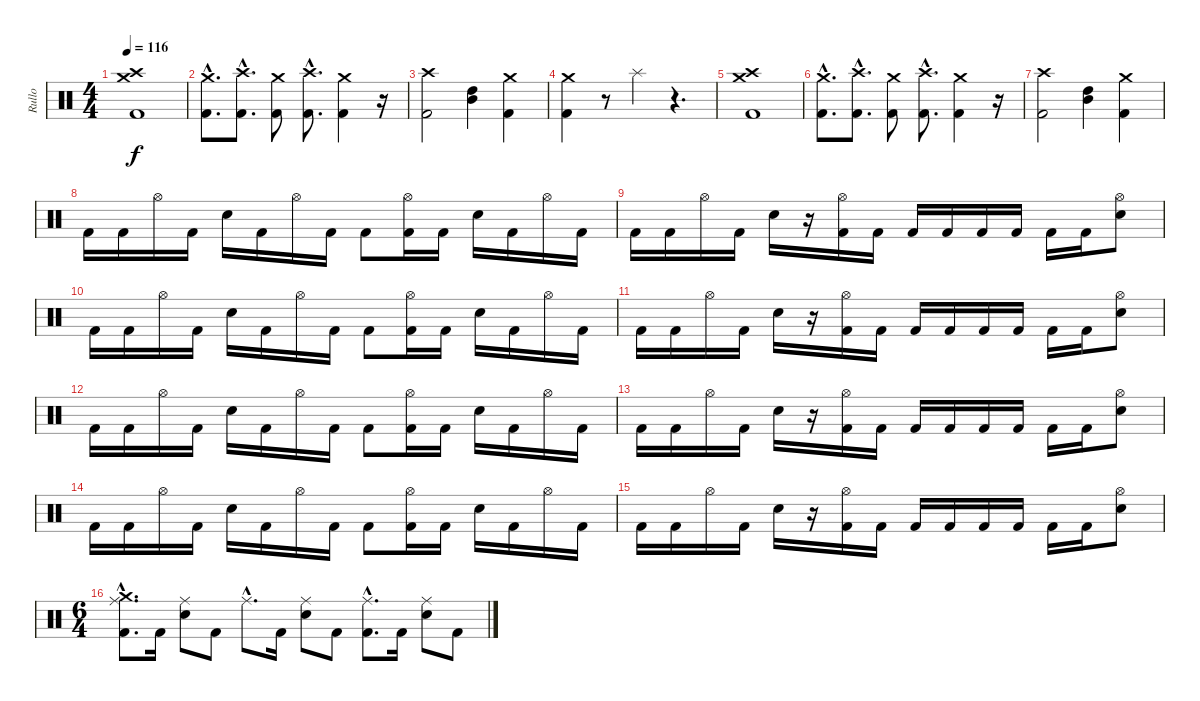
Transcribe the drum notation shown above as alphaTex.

\track ("Rullo" "Rullo") {instrument percussion}
\staff {score}
\articulation defaults
\ts (4 4)
\tempo 116
\clef neutral
\ks c
("Crash high (hit)" "Crash medium (hit)" "Kick (hit) 2").1{dy f} |
("Crash medium (hit)"{hac} "Kick (hit) 2"{hac}).8{d} ("Crash high (hit)"{hac} "Kick (hit) 2"{hac}).8{d} ("Crash medium (hit)" "Kick (hit) 2").8 ("Crash high (hit)"{hac} "Kick (hit) 2"{hac}).8{d} ("Crash medium (hit)" "Kick (hit) 2").4 r.16 |
("Crash high (hit)" "Kick (hit) 2").2 ("Mid Tom (hit)" "High Tom (hit)").4 ("Crash medium (hit)" "Kick (hit) 2").4 |
("Crash medium (hit)" "Kick (hit) 2").4 r.8 "Splash (hit)".4 r.4{d} |
("Crash high (hit)" "Crash medium (hit)" "Kick (hit) 2").1 |
("Crash medium (hit)"{hac} "Kick (hit) 2"{hac}).8{d} ("Crash high (hit)"{hac} "Kick (hit) 2"{hac}).8{d} ("Crash medium (hit)" "Kick (hit) 2").8 ("Crash high (hit)"{hac} "Kick (hit) 2"{hac}).8{d} ("Crash medium (hit)" "Kick (hit) 2").4 r.16 |
("Crash high (hit)" "Kick (hit) 2").2 ("Mid Tom (hit)" "High Tom (hit)").4 ("Crash medium (hit)" "Kick (hit) 2").4 |
"Kick (hit) 2".16 "Kick (hit) 2".16 "Hi-Hat (open)".16 "Kick (hit) 2".16 "Electric Snare (hit)".16 "Kick (hit) 2".16 "Hi-Hat (open)".16 "Kick (hit) 2".16 "Kick (hit) 2".8 ("Hi-Hat (open)" "Kick (hit) 2").16 "Kick (hit) 2".16 "Electric Snare (hit)".16 "Kick (hit) 2".16 "Hi-Hat (open)".16 "Kick (hit) 2".16 |
"Kick (hit) 2".16 "Kick (hit) 2".16 "Hi-Hat (open)".16 "Kick (hit) 2".16 "Electric Snare (hit)".16 r.16 ("Hi-Hat (open)" "Kick (hit) 2").16 "Kick (hit) 2".16 "Kick (hit) 2".16 "Kick (hit) 2".16 "Kick (hit) 2".16 "Kick (hit) 2".16 "Kick (hit) 2".16 "Kick (hit) 2".16 ("Hi-Hat (open)" "Electric Snare (hit)").8 |
"Kick (hit) 2".16 "Kick (hit) 2".16 "Hi-Hat (open)".16 "Kick (hit) 2".16 "Electric Snare (hit)".16 "Kick (hit) 2".16 "Hi-Hat (open)".16 "Kick (hit) 2".16 "Kick (hit) 2".8 ("Hi-Hat (open)" "Kick (hit) 2").16 "Kick (hit) 2".16 "Electric Snare (hit)".16 "Kick (hit) 2".16 "Hi-Hat (open)".16 "Kick (hit) 2".16 |
"Kick (hit) 2".16 "Kick (hit) 2".16 "Hi-Hat (open)".16 "Kick (hit) 2".16 "Electric Snare (hit)".16 r.16 ("Hi-Hat (open)" "Kick (hit) 2").16 "Kick (hit) 2".16 "Kick (hit) 2".16 "Kick (hit) 2".16 "Kick (hit) 2".16 "Kick (hit) 2".16 "Kick (hit) 2".16 "Kick (hit) 2".16 ("Hi-Hat (open)" "Electric Snare (hit)").8 |
"Kick (hit) 2".16 "Kick (hit) 2".16 "Hi-Hat (open)".16 "Kick (hit) 2".16 "Electric Snare (hit)".16 "Kick (hit) 2".16 "Hi-Hat (open)".16 "Kick (hit) 2".16 "Kick (hit) 2".8 ("Hi-Hat (open)" "Kick (hit) 2").16 "Kick (hit) 2".16 "Electric Snare (hit)".16 "Kick (hit) 2".16 "Hi-Hat (open)".16 "Kick (hit) 2".16 |
"Kick (hit) 2".16 "Kick (hit) 2".16 "Hi-Hat (open)".16 "Kick (hit) 2".16 "Electric Snare (hit)".16 r.16 ("Hi-Hat (open)" "Kick (hit) 2").16 "Kick (hit) 2".16 "Kick (hit) 2".16 "Kick (hit) 2".16 "Kick (hit) 2".16 "Kick (hit) 2".16 "Kick (hit) 2".16 "Kick (hit) 2".16 ("Hi-Hat (open)" "Electric Snare (hit)").8 |
"Kick (hit) 2".16 "Kick (hit) 2".16 "Hi-Hat (open)".16 "Kick (hit) 2".16 "Electric Snare (hit)".16 "Kick (hit) 2".16 "Hi-Hat (open)".16 "Kick (hit) 2".16 "Kick (hit) 2".8 ("Hi-Hat (open)" "Kick (hit) 2").16 "Kick (hit) 2".16 "Electric Snare (hit)".16 "Kick (hit) 2".16 "Hi-Hat (open)".16 "Kick (hit) 2".16 |
"Kick (hit) 2".16 "Kick (hit) 2".16 "Hi-Hat (open)".16 "Kick (hit) 2".16 "Electric Snare (hit)".16 r.16 ("Hi-Hat (open)" "Kick (hit) 2").16 "Kick (hit) 2".16 "Kick (hit) 2".16 "Kick (hit) 2".16 "Kick (hit) 2".16 "Kick (hit) 2".16 "Kick (hit) 2".16 "Kick (hit) 2".16 ("Hi-Hat (open)" "Electric Snare (hit)").8 |
\ts (6 4)
("Crash medium (hit)"{hac} "Ride (middle)"{hac} "Kick (hit) 2"{hac}).8{d} "Kick (hit) 2".16 ("Ride (middle)" "Electric Snare (hit)").8 "Kick (hit) 2".8 "Ride (middle)"{hac}.8{d} "Kick (hit) 2".16 ("Ride (middle)" "Electric Snare (hit)").8 "Kick (hit) 2".8 ("Ride (middle)"{hac} "Kick (hit) 2"{hac}).8{d} "Kick (hit) 2".16 ("Ride (middle)" "Electric Snare (hit)").8 "Kick (hit) 2".8
